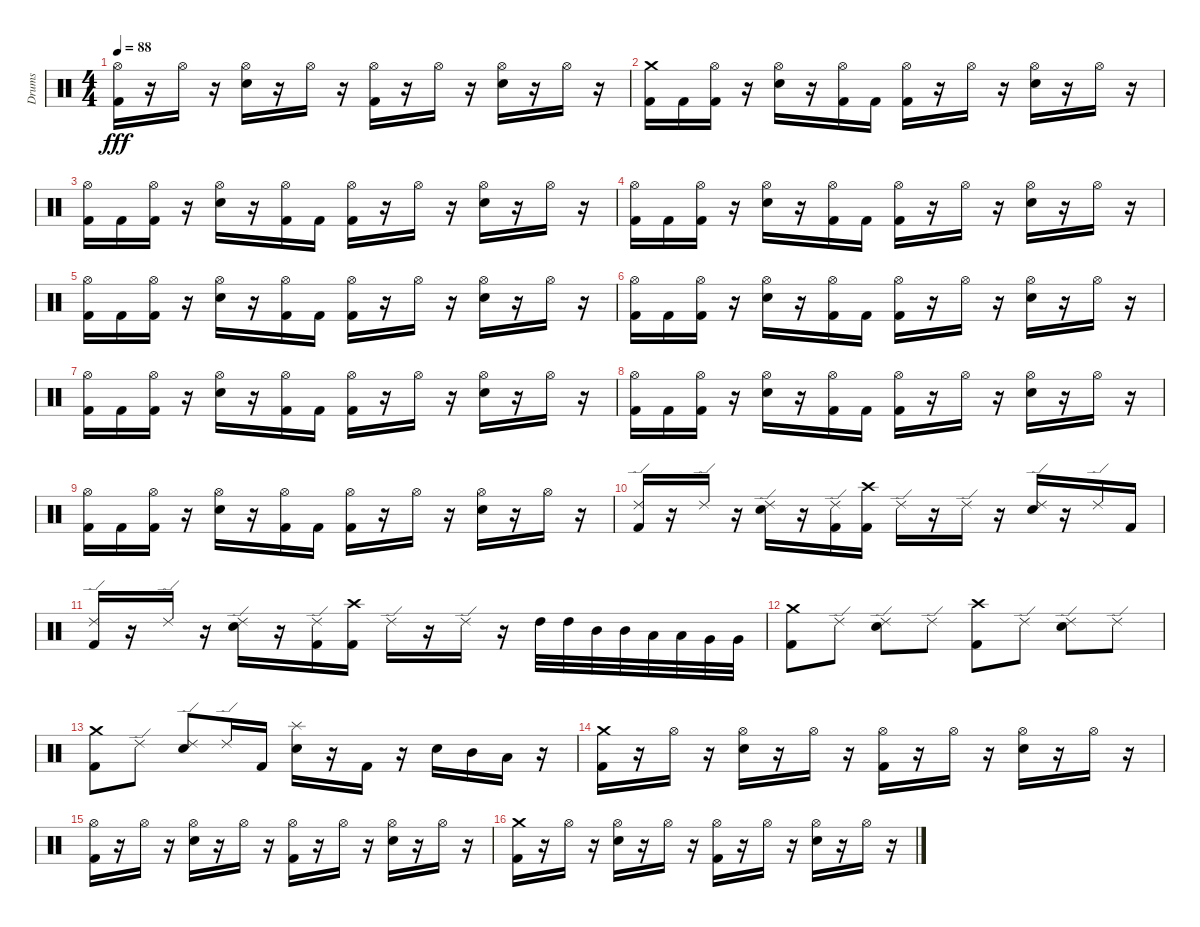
\track ("Drums" "Drums") {instrument percussion}
\staff {score}
\articulation defaults
\ts (4 4)
\tempo 88
\clef neutral
\ks c
("Kick (hit) 2" "Hi-Hat (open)").16{dy fff} r.16 "Hi-Hat (open)".16 r.16 ("Electric Snare (hit)" "Hi-Hat (open)").16 r.16 "Hi-Hat (open)".16 r.16 ("Kick (hit) 2" "Hi-Hat (open)").16 r.16 "Hi-Hat (open)".16 r.16 ("Electric Snare (hit)" "Hi-Hat (open)").16 r.16 "Hi-Hat (open)".16 r.16 |
("Crash medium (hit)" "Kick (hit) 2").16 "Kick (hit) 2".16 ("Kick (hit) 2" "Hi-Hat (open)").16 r.16 ("Hi-Hat (open)" "Electric Snare (hit)").16 r.16 ("Kick (hit) 2" "Hi-Hat (open)").16 "Kick (hit) 2".16 ("Kick (hit) 2" "Hi-Hat (open)").16 r.16 "Hi-Hat (open)".16 r.16 ("Electric Snare (hit)" "Hi-Hat (open)").16 r.16 "Hi-Hat (open)".16 r.16 |
("Hi-Hat (open)" "Kick (hit) 2").16 "Kick (hit) 2".16 ("Kick (hit) 2" "Hi-Hat (open)").16 r.16 ("Hi-Hat (open)" "Electric Snare (hit)").16 r.16 ("Kick (hit) 2" "Hi-Hat (open)").16 "Kick (hit) 2".16 ("Kick (hit) 2" "Hi-Hat (open)").16 r.16 "Hi-Hat (open)".16 r.16 ("Electric Snare (hit)" "Hi-Hat (open)").16 r.16 "Hi-Hat (open)".16 r.16 |
("Hi-Hat (open)" "Kick (hit) 2").16 "Kick (hit) 2".16 ("Kick (hit) 2" "Hi-Hat (open)").16 r.16 ("Hi-Hat (open)" "Electric Snare (hit)").16 r.16 ("Kick (hit) 2" "Hi-Hat (open)").16 "Kick (hit) 2".16 ("Kick (hit) 2" "Hi-Hat (open)").16 r.16 "Hi-Hat (open)".16 r.16 ("Electric Snare (hit)" "Hi-Hat (open)").16 r.16 "Hi-Hat (open)".16 r.16 |
("Hi-Hat (open)" "Kick (hit) 2").16 "Kick (hit) 2".16 ("Kick (hit) 2" "Hi-Hat (open)").16 r.16 ("Hi-Hat (open)" "Electric Snare (hit)").16 r.16 ("Kick (hit) 2" "Hi-Hat (open)").16 "Kick (hit) 2".16 ("Kick (hit) 2" "Hi-Hat (open)").16 r.16 "Hi-Hat (open)".16 r.16 ("Electric Snare (hit)" "Hi-Hat (open)").16 r.16 "Hi-Hat (open)".16 r.16 |
("Hi-Hat (open)" "Kick (hit) 2").16 "Kick (hit) 2".16 ("Kick (hit) 2" "Hi-Hat (open)").16 r.16 ("Hi-Hat (open)" "Electric Snare (hit)").16 r.16 ("Kick (hit) 2" "Hi-Hat (open)").16 "Kick (hit) 2".16 ("Kick (hit) 2" "Hi-Hat (open)").16 r.16 "Hi-Hat (open)".16 r.16 ("Electric Snare (hit)" "Hi-Hat (open)").16 r.16 "Hi-Hat (open)".16 r.16 |
("Hi-Hat (open)" "Kick (hit) 2").16 "Kick (hit) 2".16 ("Kick (hit) 2" "Hi-Hat (open)").16 r.16 ("Hi-Hat (open)" "Electric Snare (hit)").16 r.16 ("Kick (hit) 2" "Hi-Hat (open)").16 "Kick (hit) 2".16 ("Kick (hit) 2" "Hi-Hat (open)").16 r.16 "Hi-Hat (open)".16 r.16 ("Electric Snare (hit)" "Hi-Hat (open)").16 r.16 "Hi-Hat (open)".16 r.16 |
("Hi-Hat (open)" "Kick (hit) 2").16 "Kick (hit) 2".16 ("Kick (hit) 2" "Hi-Hat (open)").16 r.16 ("Hi-Hat (open)" "Electric Snare (hit)").16 r.16 ("Kick (hit) 2" "Hi-Hat (open)").16 "Kick (hit) 2".16 ("Kick (hit) 2" "Hi-Hat (open)").16 r.16 "Hi-Hat (open)".16 r.16 ("Electric Snare (hit)" "Hi-Hat (open)").16 r.16 "Hi-Hat (open)".16 r.16 |
("Hi-Hat (open)" "Kick (hit) 2").16 "Kick (hit) 2".16 ("Kick (hit) 2" "Hi-Hat (open)").16 r.16 ("Hi-Hat (open)" "Electric Snare (hit)").16 r.16 ("Kick (hit) 2" "Hi-Hat (open)").16 "Kick (hit) 2".16 ("Kick (hit) 2" "Hi-Hat (open)").16 r.16 "Hi-Hat (open)".16 r.16 ("Electric Snare (hit)" "Hi-Hat (open)").16 r.16 "Hi-Hat (open)".16 r.16 |
("Ride (edge) 2" "Kick (hit) 2").16 r.16 "Ride (edge) 2".16 r.16 ("Ride (edge) 2" "Electric Snare (hit)").16 r.16 ("Kick (hit) 2" "Ride (edge) 2").16 ("Crash high (hit)" "Kick (hit) 2").16 "Ride (edge) 2".16 r.16 "Ride (edge) 2".16 r.16 ("Ride (edge) 2" "Electric Snare (hit)").16 r.16 "Ride (edge) 2".16 "Kick (hit) 2".16 |
("Ride (edge) 2" "Kick (hit) 2").16 r.16 "Ride (edge) 2".16 r.16 ("Ride (edge) 2" "Electric Snare (hit)").16 r.16 ("Kick (hit) 2" "Ride (edge) 2").16 ("Crash high (hit)" "Kick (hit) 2").16 "Ride (edge) 2".16 r.16 "Ride (edge) 2".16 r.16 "High Tom (hit)".32 "High Tom (hit)".32 "Mid Tom (hit)".32 "Mid Tom (hit)".32 "Low Tom (hit)".32 "Low Tom (hit)".32 "Very Low Tom (hit)".32 "Very Low Tom (hit)".32 |
("Crash medium (hit)" "Kick (hit) 2").8 "Ride (edge) 2".8 ("Electric Snare (hit)" "Ride (edge) 2").8 "Ride (edge) 2".8 ("Kick (hit) 2" "Crash high (hit)").8 "Ride (edge) 2".8 ("Electric Snare (hit)" "Ride (edge) 2").8 "Ride (edge) 2".8 |
("Crash medium (hit)" "Kick (hit) 2").8 "Ride (edge) 2".8 ("Ride (edge) 2" "Electric Snare (hit)").8 "Ride (edge) 2".16 "Kick (hit) 2".16 ("Splash (hit)" "Electric Snare (hit)").16 r.16 "Kick (hit) 2".16 r.16 "Electric Snare (hit)".16 "Mid Tom (hit)".16 "Low Tom (hit)".16 r.16 |
("Kick (hit) 2" "Crash medium (hit)").16 r.16 "Hi-Hat (open)".16 r.16 ("Electric Snare (hit)" "Hi-Hat (open)").16 r.16 "Hi-Hat (open)".16 r.16 ("Kick (hit) 2" "Hi-Hat (open)").16 r.16 "Hi-Hat (open)".16 r.16 ("Electric Snare (hit)" "Hi-Hat (open)").16 r.16 "Hi-Hat (open)".16 r.16 |
("Kick (hit) 2" "Hi-Hat (open)").16 r.16 "Hi-Hat (open)".16 r.16 ("Electric Snare (hit)" "Hi-Hat (open)").16 r.16 "Hi-Hat (open)".16 r.16 ("Kick (hit) 2" "Hi-Hat (open)").16 r.16 "Hi-Hat (open)".16 r.16 ("Electric Snare (hit)" "Hi-Hat (open)").16 r.16 "Hi-Hat (open)".16 r.16 |
("Kick (hit) 2" "Crash medium (hit)").16 r.16 "Hi-Hat (open)".16 r.16 ("Electric Snare (hit)" "Hi-Hat (open)").16 r.16 "Hi-Hat (open)".16 r.16 ("Kick (hit) 2" "Hi-Hat (open)").16 r.16 "Hi-Hat (open)".16 r.16 ("Electric Snare (hit)" "Hi-Hat (open)").16 r.16 "Hi-Hat (open)".16 r.16
